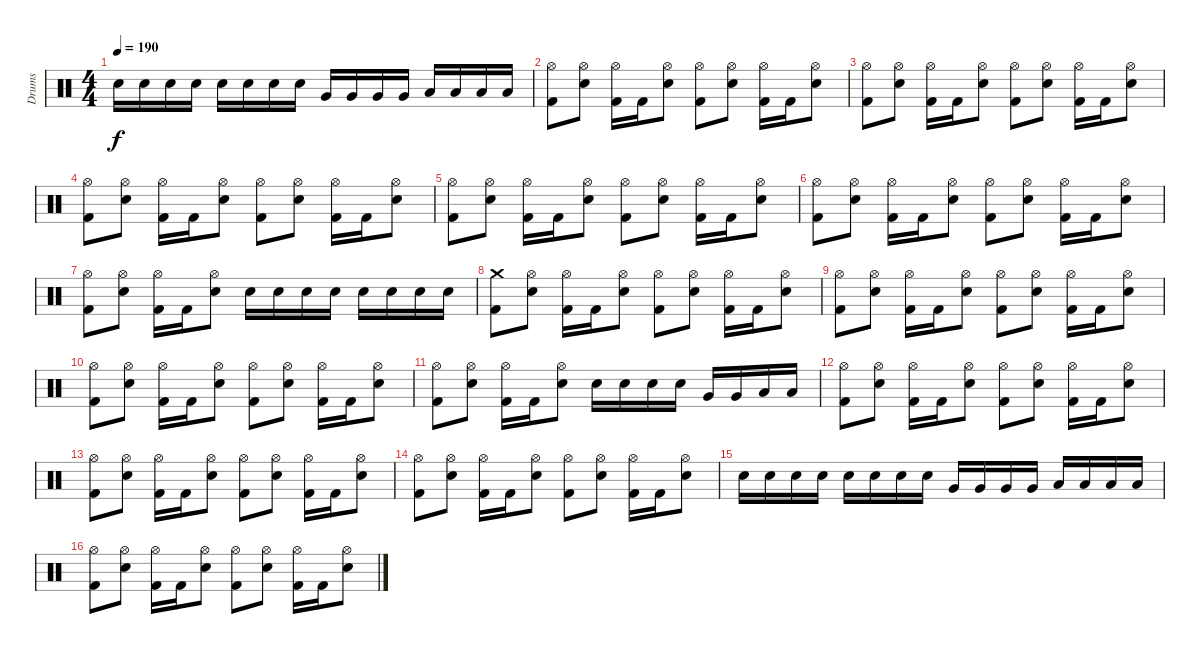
\track ("Drums" "Drums") {instrument percussion}
\staff {score}
\articulation defaults
\ts (4 4)
\tempo 190
\clef neutral
\ks c "Snare (hit) 2".16{dy f} "Snare (hit) 2".16 "Snare (hit) 2".16 "Snare (hit) 2".16 "Snare (hit) 2".16 "Snare (hit) 2".16 "Snare (hit) 2".16 "Snare (hit) 2".16 "Very Low Tom (hit)".16 "Very Low Tom (hit)".16 "Very Low Tom (hit)".16 "Very Low Tom (hit)".16 "Low Tom (hit)".16 "Low Tom (hit)".16 "Low Tom (hit)".16 "Low Tom (hit)".16
|
("Hi-Hat (open)" "Kick (hit) 2").8 ("Hi-Hat (open)" "Snare (hit) 2").8 ("Hi-Hat (open)" "Kick (hit) 2").16 "Kick (hit) 2".16 ("Hi-Hat (open)" "Snare (hit) 2").8 ("Hi-Hat (open)" "Kick (hit) 2").8 ("Hi-Hat (open)" "Snare (hit) 2").8 ("Hi-Hat (open)" "Kick (hit) 2").16 "Kick (hit) 2".16 ("Hi-Hat (open)" "Snare (hit) 2").8 |
("Hi-Hat (open)" "Kick (hit) 2").8 ("Hi-Hat (open)" "Snare (hit) 2").8 ("Hi-Hat (open)" "Kick (hit) 2").16 "Kick (hit) 2".16 ("Hi-Hat (open)" "Snare (hit) 2").8 ("Hi-Hat (open)" "Kick (hit) 2").8 ("Hi-Hat (open)" "Snare (hit) 2").8 ("Hi-Hat (open)" "Kick (hit) 2").16 "Kick (hit) 2".16 ("Hi-Hat (open)" "Snare (hit) 2").8 |
("Hi-Hat (open)" "Kick (hit) 2").8 ("Hi-Hat (open)" "Snare (hit) 2").8 ("Hi-Hat (open)" "Kick (hit) 2").16 "Kick (hit) 2".16 ("Hi-Hat (open)" "Snare (hit) 2").8 ("Hi-Hat (open)" "Kick (hit) 2").8 ("Hi-Hat (open)" "Snare (hit) 2").8 ("Hi-Hat (open)" "Kick (hit) 2").16 "Kick (hit) 2".16 ("Hi-Hat (open)" "Snare (hit) 2").8 |
("Hi-Hat (open)" "Kick (hit) 2").8 ("Hi-Hat (open)" "Snare (hit) 2").8 ("Hi-Hat (open)" "Kick (hit) 2").16 "Kick (hit) 2".16 ("Hi-Hat (open)" "Snare (hit) 2").8 ("Hi-Hat (open)" "Kick (hit) 2").8 ("Hi-Hat (open)" "Snare (hit) 2").8 ("Hi-Hat (open)" "Kick (hit) 2").16 "Kick (hit) 2".16 ("Hi-Hat (open)" "Snare (hit) 2").8 |
("Hi-Hat (open)" "Kick (hit) 2").8 ("Hi-Hat (open)" "Snare (hit) 2").8 ("Hi-Hat (open)" "Kick (hit) 2").16 "Kick (hit) 2".16 ("Hi-Hat (open)" "Snare (hit) 2").8 ("Hi-Hat (open)" "Kick (hit) 2").8 ("Hi-Hat (open)" "Snare (hit) 2").8 ("Hi-Hat (open)" "Kick (hit) 2").16 "Kick (hit) 2".16 ("Hi-Hat (open)" "Snare (hit) 2").8 |
("Hi-Hat (open)" "Kick (hit) 2").8 ("Hi-Hat (open)" "Snare (hit) 2").8 ("Hi-Hat (open)" "Kick (hit) 2").16 "Kick (hit) 2".16 ("Hi-Hat (open)" "Snare (hit) 2").8 "Snare (hit) 2".16 "Snare (hit) 2".16 "Snare (hit) 2".16 "Snare (hit) 2".16 "Snare (hit) 2".16 "Snare (hit) 2".16 "Snare (hit) 2".16 "Snare (hit) 2".16 |
("Crash medium (hit)" "Kick (hit) 2").8 ("Hi-Hat (open)" "Snare (hit) 2").8 ("Hi-Hat (open)" "Kick (hit) 2").16 "Kick (hit) 2".16 ("Hi-Hat (open)" "Snare (hit) 2").8 ("Hi-Hat (open)" "Kick (hit) 2").8 ("Hi-Hat (open)" "Snare (hit) 2").8 ("Hi-Hat (open)" "Kick (hit) 2").16 "Kick (hit) 2".16 ("Hi-Hat (open)" "Snare (hit) 2").8 |
("Hi-Hat (open)" "Kick (hit) 2").8 ("Hi-Hat (open)" "Snare (hit) 2").8 ("Hi-Hat (open)" "Kick (hit) 2").16 "Kick (hit) 2".16 ("Hi-Hat (open)" "Snare (hit) 2").8 ("Hi-Hat (open)" "Kick (hit) 2").8 ("Hi-Hat (open)" "Snare (hit) 2").8 ("Hi-Hat (open)" "Kick (hit) 2").16 "Kick (hit) 2".16 ("Hi-Hat (open)" "Snare (hit) 2").8 |
("Hi-Hat (open)" "Kick (hit) 2").8 ("Hi-Hat (open)" "Snare (hit) 2").8 ("Hi-Hat (open)" "Kick (hit) 2").16 "Kick (hit) 2".16 ("Hi-Hat (open)" "Snare (hit) 2").8 ("Hi-Hat (open)" "Kick (hit) 2").8 ("Hi-Hat (open)" "Snare (hit) 2").8 ("Hi-Hat (open)" "Kick (hit) 2").16 "Kick (hit) 2".16 ("Hi-Hat (open)" "Snare (hit) 2").8 |
("Hi-Hat (open)" "Kick (hit) 2").8 ("Hi-Hat (open)" "Snare (hit) 2").8 ("Hi-Hat (open)" "Kick (hit) 2").16 "Kick (hit) 2".16 ("Hi-Hat (open)" "Snare (hit) 2").8 "Snare (hit) 2".16 "Snare (hit) 2".16 "Snare (hit) 2".16 "Snare (hit) 2".16 "Very Low Tom (hit)".16 "Very Low Tom (hit)".16 "Low Tom (hit)".16 "Low Tom (hit)".16 |
("Hi-Hat (open)" "Kick (hit) 2").8 ("Hi-Hat (open)" "Snare (hit) 2").8 ("Hi-Hat (open)" "Kick (hit) 2").16 "Kick (hit) 2".16 ("Hi-Hat (open)" "Snare (hit) 2").8 ("Hi-Hat (open)" "Kick (hit) 2").8 ("Hi-Hat (open)" "Snare (hit) 2").8 ("Hi-Hat (open)" "Kick (hit) 2").16 "Kick (hit) 2".16 ("Hi-Hat (open)" "Snare (hit) 2").8 |
("Hi-Hat (open)" "Kick (hit) 2").8 ("Hi-Hat (open)" "Snare (hit) 2").8 ("Hi-Hat (open)" "Kick (hit) 2").16 "Kick (hit) 2".16 ("Hi-Hat (open)" "Snare (hit) 2").8 ("Hi-Hat (open)" "Kick (hit) 2").8 ("Hi-Hat (open)" "Snare (hit) 2").8 ("Hi-Hat (open)" "Kick (hit) 2").16 "Kick (hit) 2".16 ("Hi-Hat (open)" "Snare (hit) 2").8 |
("Hi-Hat (open)" "Kick (hit) 2").8 ("Hi-Hat (open)" "Snare (hit) 2").8 ("Hi-Hat (open)" "Kick (hit) 2").16 "Kick (hit) 2".16 ("Hi-Hat (open)" "Snare (hit) 2").8 ("Hi-Hat (open)" "Kick (hit) 2").8 ("Hi-Hat (open)" "Snare (hit) 2").8 ("Hi-Hat (open)" "Kick (hit) 2").16 "Kick (hit) 2".16 ("Hi-Hat (open)" "Snare (hit) 2").8 |
"Snare (hit) 2".16 "Snare (hit) 2".16 "Snare (hit) 2".16 "Snare (hit) 2".16 "Snare (hit) 2".16 "Snare (hit) 2".16 "Snare (hit) 2".16 "Snare (hit) 2".16 "Very Low Tom (hit)".16 "Very Low Tom (hit)".16 "Very Low Tom (hit)".16 "Very Low Tom (hit)".16 "Low Tom (hit)".16 "Low Tom (hit)".16 "Low Tom (hit)".16 "Low Tom (hit)".16 |
("Hi-Hat (open)" "Kick (hit) 2").8 ("Hi-Hat (open)" "Snare (hit) 2").8 ("Hi-Hat (open)" "Kick (hit) 2").16 "Kick (hit) 2".16 ("Hi-Hat (open)" "Snare (hit) 2").8 ("Hi-Hat (open)" "Kick (hit) 2").8 ("Hi-Hat (open)" "Snare (hit) 2").8 ("Hi-Hat (open)" "Kick (hit) 2").16 "Kick (hit) 2".16 ("Hi-Hat (open)" "Snare (hit) 2").8
